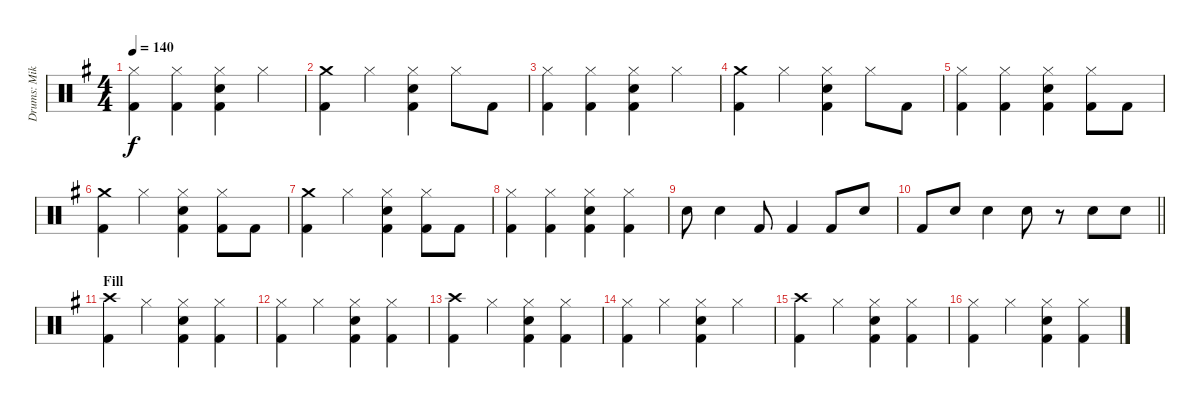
\track ("Drums: Mike Terrana" "Drums: Mik") {instrument percussion}
\staff {score}
\articulation defaults
\ts (4 4)
\tempo 140
\clef neutral
\ks eminor
("Hi-Hat (closed)" "Kick (hit) 2").4{dy f} ("Hi-Hat (closed)" "Kick (hit) 2").4 ("Hi-Hat (closed)" "Electric Snare (hit)" "Kick (hit) 2").4 "Hi-Hat (closed)".4 |
("Crash medium (hit)" "Kick (hit) 2").4 "Hi-Hat (closed)".4 ("Hi-Hat (closed)" "Electric Snare (hit)" "Kick (hit) 2").4 "Hi-Hat (closed)".8 "Kick (hit) 2".8 |
("Hi-Hat (closed)" "Kick (hit) 2").4 ("Hi-Hat (closed)" "Kick (hit) 2").4 ("Hi-Hat (closed)" "Electric Snare (hit)" "Kick (hit) 2").4 "Hi-Hat (closed)".4 |
("Crash medium (hit)" "Kick (hit) 2").4 "Hi-Hat (closed)".4 ("Hi-Hat (closed)" "Electric Snare (hit)" "Kick (hit) 2").4 "Hi-Hat (closed)".8 "Kick (hit) 2".8 |
("Hi-Hat (closed)" "Kick (hit) 2").4 ("Hi-Hat (closed)" "Kick (hit) 2").4 ("Hi-Hat (closed)" "Electric Snare (hit)" "Kick (hit) 2").4 ("Hi-Hat (closed)" "Kick (hit) 2").8 "Kick (hit) 2".8 |
("Crash medium (hit)" "Kick (hit) 2").4 "Hi-Hat (closed)".4 ("Hi-Hat (closed)" "Electric Snare (hit)" "Kick (hit) 2").4 ("Hi-Hat (closed)" "Kick (hit) 2").8 "Kick (hit) 2".8 |
("Crash medium (hit)" "Kick (hit) 2").4 "Hi-Hat (closed)".4 ("Hi-Hat (closed)" "Electric Snare (hit)" "Kick (hit) 2").4 ("Hi-Hat (closed)" "Kick (hit) 2").8 "Kick (hit) 2".8 |
("Hi-Hat (closed)" "Kick (hit) 2").4 ("Hi-Hat (closed)" "Kick (hit) 2").4 ("Hi-Hat (closed)" "Electric Snare (hit)" "Kick (hit) 2").4 ("Hi-Hat (closed)" "Kick (hit) 2").4 |
"Electric Snare (hit)".8 "Electric Snare (hit)".4 "Kick (hit) 2".8 "Kick (hit) 2".4 "Kick (hit) 2".8 "Electric Snare (hit)".8 |
\barLineRight lightlight "Kick (hit) 2".8 "Electric Snare (hit)".8 "Electric Snare (hit)".4 "Electric Snare (hit)".8
r.8 "Electric Snare (hit)".8 "Electric Snare (hit)".8 |
\section ("" "Fill")
("Crash high (hit)" "Kick (hit) 2").4 "Hi-Hat (closed)".4 ("Hi-Hat (closed)" "Electric Snare (hit)" "Kick (hit) 2").4 ("Hi-Hat (closed)" "Kick (hit) 2").4 |
("Hi-Hat (closed)" "Kick (hit) 2").4 "Hi-Hat (closed)".4 ("Hi-Hat (closed)" "Electric Snare (hit)" "Kick (hit) 2").4 ("Hi-Hat (closed)" "Kick (hit) 2").4 |
("Crash high (hit)" "Kick (hit) 2").4 "Hi-Hat (closed)".4 ("Hi-Hat (closed)" "Electric Snare (hit)" "Kick (hit) 2").4 ("Hi-Hat (closed)" "Kick (hit) 2").4 |
("Hi-Hat (closed)" "Kick (hit) 2").4 "Hi-Hat (closed)".4 ("Hi-Hat (closed)" "Electric Snare (hit)" "Kick (hit) 2").4 "Hi-Hat (closed)".4 |
("Crash high (hit)" "Kick (hit) 2").4 "Hi-Hat (closed)".4 ("Hi-Hat (closed)" "Electric Snare (hit)" "Kick (hit) 2").4 ("Hi-Hat (closed)" "Kick (hit) 2").4 |
("Hi-Hat (closed)" "Kick (hit) 2").4 "Hi-Hat (closed)".4 ("Hi-Hat (closed)" "Electric Snare (hit)" "Kick (hit) 2").4 ("Hi-Hat (closed)" "Kick (hit) 2").4
